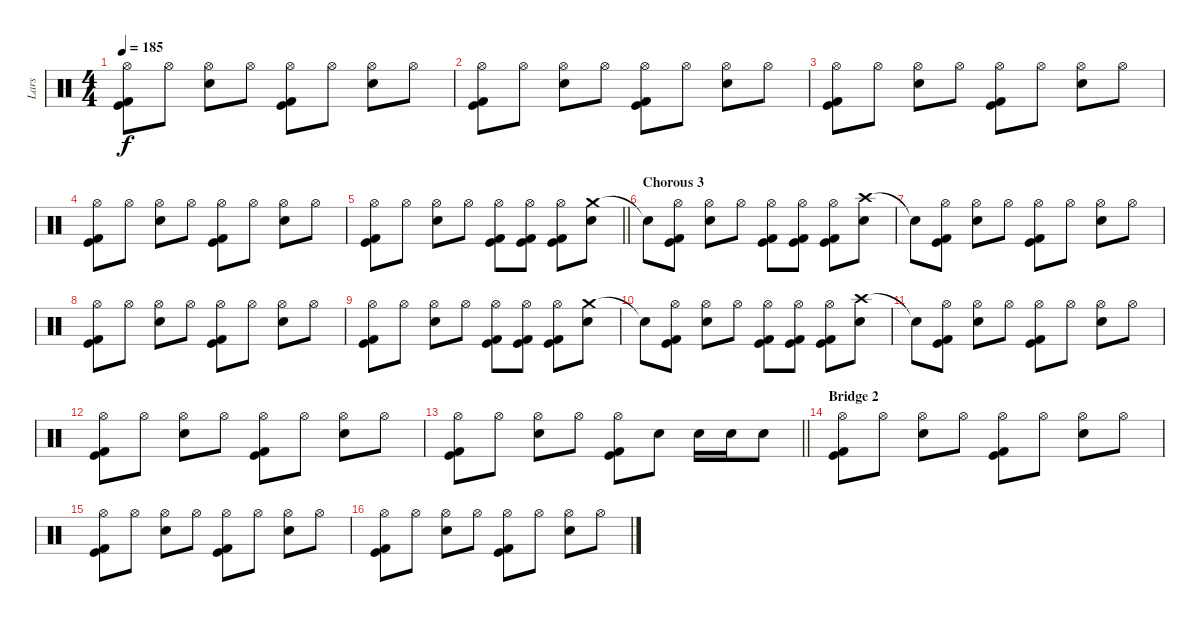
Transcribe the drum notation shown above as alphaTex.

\track ("Lars" "Lars") {instrument percussion}
\staff {score}
\articulation defaults
\ts (4 4)
\tempo 185
\clef neutral
\ks c
("Hi-Hat (open)" "Kick (hit)" "Kick (hit) 2").8{dy f} "Hi-Hat (open)".8 ("Hi-Hat (open)" "Electric Snare (hit)").8 "Hi-Hat (open)".8 ("Hi-Hat (open)" "Kick (hit)" "Kick (hit) 2").8 "Hi-Hat (open)".8 ("Hi-Hat (open)" "Electric Snare (hit)").8 "Hi-Hat (open)".8 |
("Hi-Hat (open)" "Kick (hit)" "Kick (hit) 2").8 "Hi-Hat (open)".8 ("Hi-Hat (open)" "Electric Snare (hit)").8 "Hi-Hat (open)".8 ("Hi-Hat (open)" "Kick (hit)" "Kick (hit) 2").8 "Hi-Hat (open)".8 ("Hi-Hat (open)" "Electric Snare (hit)").8 "Hi-Hat (open)".8 |
("Hi-Hat (open)" "Kick (hit)" "Kick (hit) 2").8 "Hi-Hat (open)".8 ("Hi-Hat (open)" "Electric Snare (hit)").8 "Hi-Hat (open)".8 ("Hi-Hat (open)" "Kick (hit)" "Kick (hit) 2").8 "Hi-Hat (open)".8 ("Hi-Hat (open)" "Electric Snare (hit)").8 "Hi-Hat (open)".8 |
("Hi-Hat (open)" "Kick (hit)" "Kick (hit) 2").8 "Hi-Hat (open)".8 ("Hi-Hat (open)" "Electric Snare (hit)").8 "Hi-Hat (open)".8 ("Hi-Hat (open)" "Kick (hit)" "Kick (hit) 2").8 "Hi-Hat (open)".8 ("Hi-Hat (open)" "Electric Snare (hit)").8 "Hi-Hat (open)".8 |
\barLineRight lightlight
("Hi-Hat (open)" "Kick (hit)" "Kick (hit) 2").8 "Hi-Hat (open)".8 ("Hi-Hat (open)" "Electric Snare (hit)").8 "Hi-Hat (open)".8 ("Hi-Hat (open)" "Kick (hit)" "Kick (hit) 2").8 ("Hi-Hat (open)" "Kick (hit)" "Kick (hit) 2").8 ("Hi-Hat (open)" "Kick (hit)" "Kick (hit) 2").8 ("Crash medium (hit)" "Electric Snare (hit)").8 |
\section ("" "Chorous 3")
"Snare (hit)"{t}.8 ("Hi-Hat (open)" "Kick (hit)" "Kick (hit) 2").8 ("Hi-Hat (open)" "Electric Snare (hit)").8 "Hi-Hat (open)".8 ("Hi-Hat (open)" "Kick (hit)" "Kick (hit) 2").8 ("Hi-Hat (open)" "Kick (hit)" "Kick (hit) 2").8 ("Hi-Hat (open)" "Kick (hit)" "Kick (hit) 2").8 ("Crash high (hit)" "Electric Snare (hit)").8 |
"Snare (hit)"{t}.8 ("Hi-Hat (open)" "Kick (hit)" "Kick (hit) 2").8 ("Hi-Hat (open)" "Electric Snare (hit)").8 "Hi-Hat (open)".8 ("Hi-Hat (open)" "Kick (hit)" "Kick (hit) 2").8 "Hi-Hat (open)".8 ("Hi-Hat (open)" "Electric Snare (hit)").8 "Hi-Hat (open)".8 |
("Hi-Hat (open)" "Kick (hit)" "Kick (hit) 2").8 "Hi-Hat (open)".8 ("Hi-Hat (open)" "Electric Snare (hit)").8 "Hi-Hat (open)".8 ("Hi-Hat (open)" "Kick (hit)" "Kick (hit) 2").8 "Hi-Hat (open)".8 ("Hi-Hat (open)" "Electric Snare (hit)").8 "Hi-Hat (open)".8 |
("Hi-Hat (open)" "Kick (hit)" "Kick (hit) 2").8 "Hi-Hat (open)".8 ("Hi-Hat (open)" "Electric Snare (hit)").8 "Hi-Hat (open)".8 ("Hi-Hat (open)" "Kick (hit)" "Kick (hit) 2").8 ("Hi-Hat (open)" "Kick (hit)" "Kick (hit) 2").8 ("Hi-Hat (open)" "Kick (hit)" "Kick (hit) 2").8 ("Crash medium (hit)" "Electric Snare (hit)").8 |
"Snare (hit)"{t}.8 ("Hi-Hat (open)" "Kick (hit)" "Kick (hit) 2").8 ("Hi-Hat (open)" "Electric Snare (hit)").8 "Hi-Hat (open)".8 ("Hi-Hat (open)" "Kick (hit)" "Kick (hit) 2").8 ("Hi-Hat (open)" "Kick (hit)" "Kick (hit) 2").8 ("Hi-Hat (open)" "Kick (hit)" "Kick (hit) 2").8 ("Crash high (hit)" "Electric Snare (hit)").8 |
"Snare (hit)"{t}.8 ("Hi-Hat (open)" "Kick (hit)" "Kick (hit) 2").8 ("Hi-Hat (open)" "Electric Snare (hit)").8 "Hi-Hat (open)".8 ("Hi-Hat (open)" "Kick (hit)" "Kick (hit) 2").8 "Hi-Hat (open)".8 ("Hi-Hat (open)" "Electric Snare (hit)").8 "Hi-Hat (open)".8 |
("Hi-Hat (open)" "Kick (hit)" "Kick (hit) 2").8 "Hi-Hat (open)".8 ("Hi-Hat (open)" "Electric Snare (hit)").8 "Hi-Hat (open)".8 ("Hi-Hat (open)" "Kick (hit)" "Kick (hit) 2").8 "Hi-Hat (open)".8 ("Hi-Hat (open)" "Electric Snare (hit)").8 "Hi-Hat (open)".8 |
\barLineRight lightlight
("Hi-Hat (open)" "Kick (hit)" "Kick (hit) 2").8 "Hi-Hat (open)".8 ("Hi-Hat (open)" "Electric Snare (hit)").8 "Hi-Hat (open)".8 ("Hi-Hat (open)" "Kick (hit)" "Kick (hit) 2").8 "Electric Snare (hit)".8 "Electric Snare (hit)".16 "Electric Snare (hit)".16 "Electric Snare (hit)".8 |
\section ("" "Bridge 2")
("Hi-Hat (open)" "Kick (hit)" "Kick (hit) 2").8 "Hi-Hat (open)".8 ("Hi-Hat (open)" "Electric Snare (hit)").8 "Hi-Hat (open)".8 ("Hi-Hat (open)" "Kick (hit)" "Kick (hit) 2").8 "Hi-Hat (open)".8 ("Hi-Hat (open)" "Electric Snare (hit)").8 "Hi-Hat (open)".8 |
("Hi-Hat (open)" "Kick (hit)" "Kick (hit) 2").8 "Hi-Hat (open)".8 ("Hi-Hat (open)" "Electric Snare (hit)").8 "Hi-Hat (open)".8 ("Hi-Hat (open)" "Kick (hit)" "Kick (hit) 2").8 "Hi-Hat (open)".8 ("Hi-Hat (open)" "Electric Snare (hit)").8 "Hi-Hat (open)".8 |
("Hi-Hat (open)" "Kick (hit)" "Kick (hit) 2").8 "Hi-Hat (open)".8 ("Hi-Hat (open)" "Electric Snare (hit)").8 "Hi-Hat (open)".8 ("Hi-Hat (open)" "Kick (hit)" "Kick (hit) 2").8 "Hi-Hat (open)".8 ("Hi-Hat (open)" "Electric Snare (hit)").8 "Hi-Hat (open)".8
